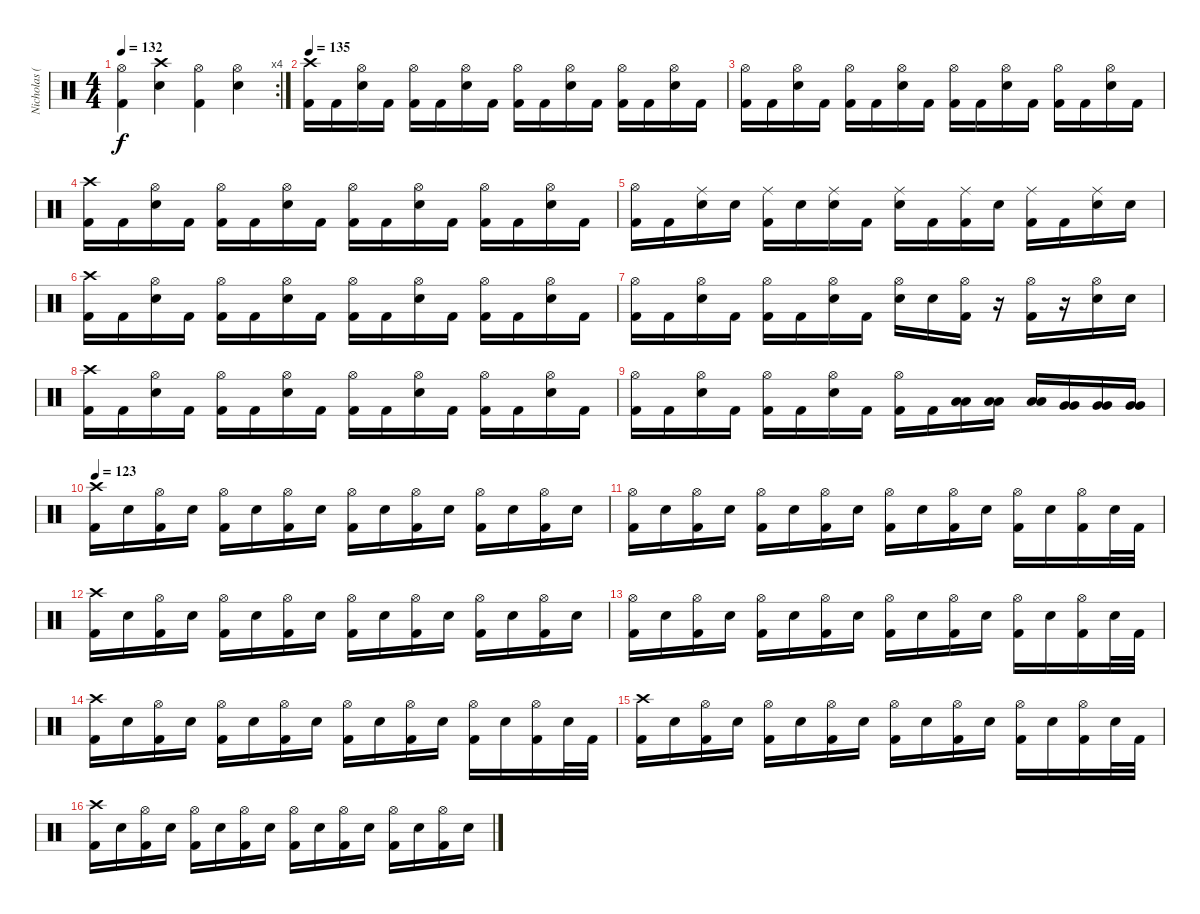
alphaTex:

\track ("Nicholas (Drums)" "Nicholas (") {instrument percussion}
\staff {score}
\articulation defaults
\rc 4
\ts (4 4)
\tempo 132
\clef neutral
\ks c
("Hi-Hat (open)" "Kick (hit) 2").4{dy f} ("Crash high (hit)" "Electric Snare (hit)").4 ("Hi-Hat (open)" "Kick (hit) 2").4 ("Hi-Hat (open)" "Electric Snare (hit)").4 |
\tempo 135
("Crash high (hit)" "Kick (hit) 2").16 "Kick (hit) 2".16 ("Hi-Hat (open)" "Electric Snare (hit)").16 "Kick (hit) 2".16 ("Hi-Hat (open)" "Kick (hit) 2").16 "Kick (hit) 2".16 ("Hi-Hat (open)" "Electric Snare (hit)").16 "Kick (hit) 2".16 ("Hi-Hat (open)" "Kick (hit) 2").16 "Kick (hit) 2".16 ("Hi-Hat (open)" "Electric Snare (hit)").16 "Kick (hit) 2".16 ("Hi-Hat (open)" "Kick (hit) 2").16 "Kick (hit) 2".16 ("Hi-Hat (open)" "Electric Snare (hit)").16 "Kick (hit) 2".16 |
("Hi-Hat (open)" "Kick (hit) 2").16 "Kick (hit) 2".16 ("Hi-Hat (open)" "Electric Snare (hit)").16 "Kick (hit) 2".16 ("Hi-Hat (open)" "Kick (hit) 2").16 "Kick (hit) 2".16 ("Hi-Hat (open)" "Electric Snare (hit)").16 "Kick (hit) 2".16 ("Hi-Hat (open)" "Kick (hit) 2").16 "Kick (hit) 2".16 ("Hi-Hat (open)" "Electric Snare (hit)").16 "Kick (hit) 2".16 ("Hi-Hat (open)" "Kick (hit) 2").16 "Kick (hit) 2".16 ("Hi-Hat (open)" "Electric Snare (hit)").16 "Kick (hit) 2".16 |
("Crash high (hit)" "Kick (hit) 2").16 "Kick (hit) 2".16 ("Hi-Hat (open)" "Electric Snare (hit)").16 "Kick (hit) 2".16 ("Hi-Hat (open)" "Kick (hit) 2").16 "Kick (hit) 2".16 ("Hi-Hat (open)" "Electric Snare (hit)").16 "Kick (hit) 2".16 ("Hi-Hat (open)" "Kick (hit) 2").16 "Kick (hit) 2".16 ("Hi-Hat (open)" "Electric Snare (hit)").16 "Kick (hit) 2".16 ("Hi-Hat (open)" "Kick (hit) 2").16 "Kick (hit) 2".16 ("Hi-Hat (open)" "Electric Snare (hit)").16 "Kick (hit) 2".16 |
("Hi-Hat (open)" "Kick (hit) 2").16 "Kick (hit) 2".16 ("Ride (middle)" "Electric Snare (hit)").16 "Electric Snare (hit)".16 ("Ride (middle)" "Kick (hit) 2").16 "Electric Snare (hit)".16 ("Ride (middle)" "Electric Snare (hit)").16 "Kick (hit) 2".16 ("Ride (middle)" "Electric Snare (hit)").16 "Kick (hit) 2".16 ("Ride (middle)" "Kick (hit) 2").16 "Electric Snare (hit)".16 ("Ride (middle)" "Kick (hit) 2").16 "Kick (hit) 2".16 ("Ride (middle)" "Electric Snare (hit)").16 "Electric Snare (hit)".16 |
("Crash high (hit)" "Kick (hit) 2").16 "Kick (hit) 2".16 ("Hi-Hat (open)" "Electric Snare (hit)").16 "Kick (hit) 2".16 ("Hi-Hat (open)" "Kick (hit) 2").16 "Kick (hit) 2".16 ("Hi-Hat (open)" "Electric Snare (hit)").16 "Kick (hit) 2".16 ("Hi-Hat (open)" "Kick (hit) 2").16 "Kick (hit) 2".16 ("Hi-Hat (open)" "Electric Snare (hit)").16 "Kick (hit) 2".16 ("Hi-Hat (open)" "Kick (hit) 2").16 "Kick (hit) 2".16 ("Hi-Hat (open)" "Electric Snare (hit)").16 "Kick (hit) 2".16 |
("Hi-Hat (open)" "Kick (hit) 2").16 "Kick (hit) 2".16 ("Hi-Hat (open)" "Electric Snare (hit)").16 "Kick (hit) 2".16 ("Hi-Hat (open)" "Kick (hit) 2").16 "Kick (hit) 2".16 ("Hi-Hat (open)" "Electric Snare (hit)").16 "Kick (hit) 2".16 ("Hi-Hat (open)" "Electric Snare (hit)").16 "Electric Snare (hit)".16 ("Hi-Hat (open)" "Kick (hit) 2").16 r.16 ("Hi-Hat (open)" "Kick (hit) 2").16 r.16 ("Hi-Hat (open)" "Electric Snare (hit)").16 "Electric Snare (hit)".16 |
("Crash high (hit)" "Kick (hit) 2").16 "Kick (hit) 2".16 ("Hi-Hat (open)" "Electric Snare (hit)").16 "Kick (hit) 2".16 ("Hi-Hat (open)" "Kick (hit) 2").16 "Kick (hit) 2".16 ("Hi-Hat (open)" "Electric Snare (hit)").16 "Kick (hit) 2".16 ("Hi-Hat (open)" "Kick (hit) 2").16 "Kick (hit) 2".16 ("Hi-Hat (open)" "Electric Snare (hit)").16 "Kick (hit) 2".16 ("Hi-Hat (open)" "Kick (hit) 2").16 "Kick (hit) 2".16 ("Hi-Hat (open)" "Electric Snare (hit)").16 "Kick (hit) 2".16 |
("Hi-Hat (open)" "Kick (hit) 2").16 "Kick (hit) 2".16 ("Hi-Hat (open)" "Electric Snare (hit)").16 "Kick (hit) 2".16 ("Hi-Hat (open)" "Kick (hit) 2").16 "Kick (hit) 2".16 ("Hi-Hat (open)" "Electric Snare (hit)").16 "Kick (hit) 2".16 ("Hi-Hat (open)" "Kick (hit) 2").16 "Kick (hit) 2".16 ("Low Tom (hit)" "Low Tom (hit)").16{balance 11} ("Low Tom (hit)" "Low Tom (hit)").16 ("Low Tom (hit)" "Low Tom (hit)").16 ("Very Low Tom (hit)" "Very Low Tom (hit)").16{balance 6} ("Very Low Tom (hit)" "Very Low Tom (hit)").16 ("Very Low Tom (hit)" "Very Low Tom (hit)").16 |
\tempo 123
("Crash high (hit)" "Kick (hit) 2").16{balance 8} "Electric Snare (hit)".16 ("Hi-Hat (open)" "Kick (hit) 2").16 "Electric Snare (hit)".16 ("Hi-Hat (open)" "Kick (hit) 2").16 "Electric Snare (hit)".16 ("Hi-Hat (open)" "Kick (hit) 2").16 "Electric Snare (hit)".16 ("Hi-Hat (open)" "Kick (hit) 2").16 "Electric Snare (hit)".16 ("Hi-Hat (open)" "Kick (hit) 2").16 "Electric Snare (hit)".16 ("Hi-Hat (open)" "Kick (hit) 2").16 "Electric Snare (hit)".16 ("Hi-Hat (open)" "Kick (hit) 2").16 "Electric Snare (hit)".16 |
("Hi-Hat (open)" "Kick (hit) 2").16 "Electric Snare (hit)".16 ("Hi-Hat (open)" "Kick (hit) 2").16 "Electric Snare (hit)".16 ("Hi-Hat (open)" "Kick (hit) 2").16 "Electric Snare (hit)".16 ("Hi-Hat (open)" "Kick (hit) 2").16 "Electric Snare (hit)".16 ("Hi-Hat (open)" "Kick (hit) 2").16 "Electric Snare (hit)".16 ("Hi-Hat (open)" "Kick (hit) 2").16 "Electric Snare (hit)".16 ("Hi-Hat (open)" "Kick (hit) 2").16 "Electric Snare (hit)".16 ("Hi-Hat (open)" "Kick (hit) 2").16 "Electric Snare (hit)".32 "Kick (hit) 2".32 |
("Crash high (hit)" "Kick (hit) 2").16 "Electric Snare (hit)".16 ("Hi-Hat (open)" "Kick (hit) 2").16 "Electric Snare (hit)".16 ("Hi-Hat (open)" "Kick (hit) 2").16 "Electric Snare (hit)".16 ("Hi-Hat (open)" "Kick (hit) 2").16 "Electric Snare (hit)".16 ("Hi-Hat (open)" "Kick (hit) 2").16 "Electric Snare (hit)".16 ("Hi-Hat (open)" "Kick (hit) 2").16 "Electric Snare (hit)".16 ("Hi-Hat (open)" "Kick (hit) 2").16 "Electric Snare (hit)".16 ("Hi-Hat (open)" "Kick (hit) 2").16 "Electric Snare (hit)".16 |
("Hi-Hat (open)" "Kick (hit) 2").16 "Electric Snare (hit)".16 ("Hi-Hat (open)" "Kick (hit) 2").16 "Electric Snare (hit)".16 ("Hi-Hat (open)" "Kick (hit) 2").16 "Electric Snare (hit)".16 ("Hi-Hat (open)" "Kick (hit) 2").16 "Electric Snare (hit)".16 ("Hi-Hat (open)" "Kick (hit) 2").16 "Electric Snare (hit)".16 ("Hi-Hat (open)" "Kick (hit) 2").16 "Electric Snare (hit)".16 ("Hi-Hat (open)" "Kick (hit) 2").16 "Electric Snare (hit)".16 ("Hi-Hat (open)" "Kick (hit) 2").16 "Electric Snare (hit)".32 "Kick (hit) 2".32 |
("Crash high (hit)" "Kick (hit) 2").16 "Electric Snare (hit)".16 ("Hi-Hat (open)" "Kick (hit) 2").16 "Electric Snare (hit)".16 ("Hi-Hat (open)" "Kick (hit) 2").16 "Electric Snare (hit)".16 ("Hi-Hat (open)" "Kick (hit) 2").16 "Electric Snare (hit)".16 ("Hi-Hat (open)" "Kick (hit) 2").16 "Electric Snare (hit)".16 ("Hi-Hat (open)" "Kick (hit) 2").16 "Electric Snare (hit)".16 ("Hi-Hat (open)" "Kick (hit) 2").16 "Electric Snare (hit)".16 ("Hi-Hat (open)" "Kick (hit) 2").16 "Electric Snare (hit)".32 "Kick (hit) 2".32 |
("Crash high (hit)" "Kick (hit) 2").16 "Electric Snare (hit)".16 ("Hi-Hat (open)" "Kick (hit) 2").16 "Electric Snare (hit)".16 ("Hi-Hat (open)" "Kick (hit) 2").16 "Electric Snare (hit)".16 ("Hi-Hat (open)" "Kick (hit) 2").16 "Electric Snare (hit)".16 ("Hi-Hat (open)" "Kick (hit) 2").16 "Electric Snare (hit)".16 ("Hi-Hat (open)" "Kick (hit) 2").16 "Electric Snare (hit)".16 ("Hi-Hat (open)" "Kick (hit) 2").16 "Electric Snare (hit)".16 ("Hi-Hat (open)" "Kick (hit) 2").16 "Electric Snare (hit)".32 "Kick (hit) 2".32 |
("Crash high (hit)" "Kick (hit) 2").16 "Electric Snare (hit)".16 ("Hi-Hat (open)" "Kick (hit) 2").16 "Electric Snare (hit)".16 ("Hi-Hat (open)" "Kick (hit) 2").16 "Electric Snare (hit)".16 ("Hi-Hat (open)" "Kick (hit) 2").16 "Electric Snare (hit)".16 ("Hi-Hat (open)" "Kick (hit) 2").16 "Electric Snare (hit)".16 ("Hi-Hat (open)" "Kick (hit) 2").16 "Electric Snare (hit)".16 ("Hi-Hat (open)" "Kick (hit) 2").16 "Electric Snare (hit)".16 ("Hi-Hat (open)" "Kick (hit) 2").16 "Electric Snare (hit)".16
